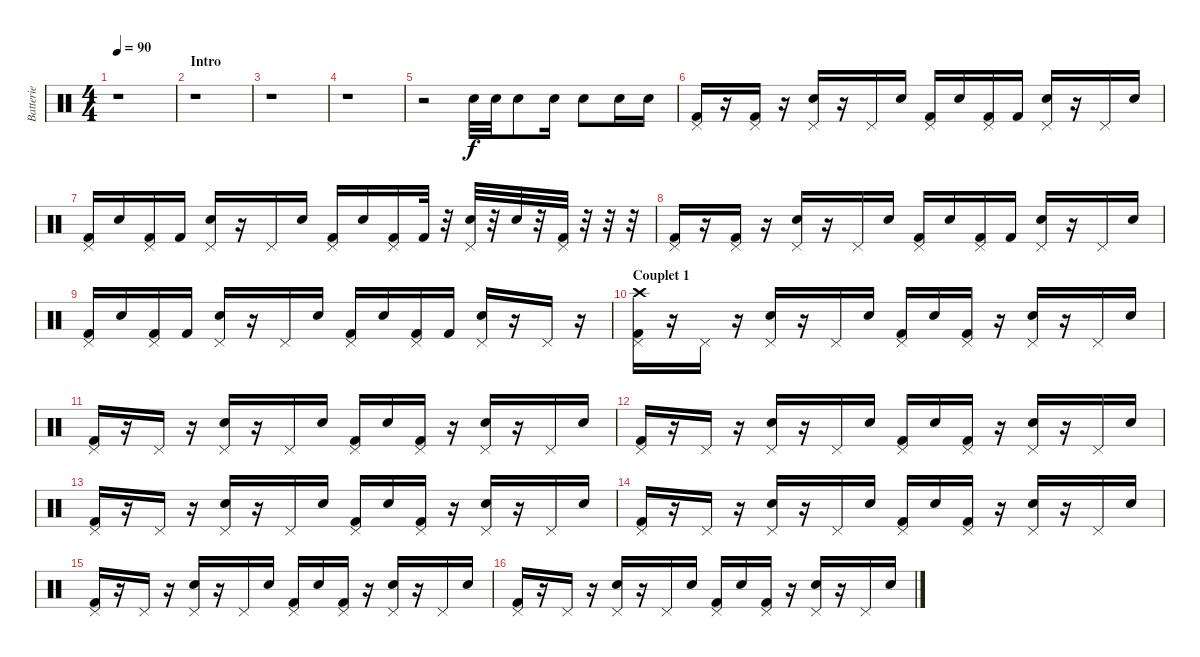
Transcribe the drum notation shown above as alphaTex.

\track ("Batterie" "Batterie") {instrument percussion}
\staff {score}
\articulation defaults
\ts (4 4)
\tempo 90
\clef neutral
\ks c
r.1{dy f} |
\section ("" "Intro")
r.1 |
r.1 |
r.1 |
r.2 "Electric Snare (hit)".32 "Electric Snare (hit)".32 "Electric Snare (hit)".8 "Electric Snare (hit)".16 "Electric Snare (hit)".8 "Electric Snare (hit)".16 "Electric Snare (hit)".16 |
("Pedal Hi-Hat (hit)" "Kick (hit) 2").16 r.16 ("Pedal Hi-Hat (hit)" "Kick (hit) 2").16 r.16 ("Pedal Hi-Hat (hit)" "Electric Snare (hit)").16 r.16 "Pedal Hi-Hat (hit)".16 "Electric Snare (hit)".16 ("Pedal Hi-Hat (hit)" "Kick (hit) 2").16 "Electric Snare (hit)".16 ("Pedal Hi-Hat (hit)" "Kick (hit) 2").16 "Kick (hit) 2".16 ("Pedal Hi-Hat (hit)" "Electric Snare (hit)").16 r.16 "Pedal Hi-Hat (hit)".16 "Electric Snare (hit)".16 |
("Pedal Hi-Hat (hit)" "Kick (hit) 2").16 "Electric Snare (hit)".16 ("Pedal Hi-Hat (hit)" "Kick (hit) 2").16 "Kick (hit) 2".16 ("Pedal Hi-Hat (hit)" "Electric Snare (hit)").16 r.16 "Pedal Hi-Hat (hit)".16 "Electric Snare (hit)".16 ("Pedal Hi-Hat (hit)" "Kick (hit) 2").16 "Electric Snare (hit)".16 ("Pedal Hi-Hat (hit)" "Kick (hit) 2").16 "Kick (hit) 2".32 r.32 ("Pedal Hi-Hat (hit)" "Electric Snare (hit)").32 r.32 "Electric Snare (hit)".32 r.32 ("Pedal Hi-Hat (hit)" "Kick (hit) 2").32 r.32 r.32 r.32 |
("Pedal Hi-Hat (hit)" "Kick (hit) 2").16 r.16 ("Pedal Hi-Hat (hit)" "Kick (hit) 2").16 r.16 ("Pedal Hi-Hat (hit)" "Electric Snare (hit)").16 r.16 "Pedal Hi-Hat (hit)".16 "Electric Snare (hit)".16 ("Pedal Hi-Hat (hit)" "Kick (hit) 2").16 "Electric Snare (hit)".16 ("Pedal Hi-Hat (hit)" "Kick (hit) 2").16 "Kick (hit) 2".16 ("Pedal Hi-Hat (hit)" "Electric Snare (hit)").16 r.16 "Pedal Hi-Hat (hit)".16 "Electric Snare (hit)".16 |
("Pedal Hi-Hat (hit)" "Kick (hit) 2").16 "Electric Snare (hit)".16 ("Pedal Hi-Hat (hit)" "Kick (hit) 2").16 "Kick (hit) 2".16 ("Pedal Hi-Hat (hit)" "Electric Snare (hit)").16 r.16 "Pedal Hi-Hat (hit)".16 "Electric Snare (hit)".16 ("Pedal Hi-Hat (hit)" "Kick (hit) 2").16 "Electric Snare (hit)".16 ("Pedal Hi-Hat (hit)" "Kick (hit) 2").16 "Kick (hit) 2".16 ("Pedal Hi-Hat (hit)" "Electric Snare (hit)").16 r.16 "Pedal Hi-Hat (hit)".16 r.16 |
\section ("" "Couplet 1")
("Pedal Hi-Hat (hit)" "Crash high (hit)" "Kick (hit) 2").16 r.16 "Pedal Hi-Hat (hit)".16 r.16 ("Pedal Hi-Hat (hit)" "Electric Snare (hit)").16 r.16 "Pedal Hi-Hat (hit)".16 "Electric Snare (hit)".16 ("Pedal Hi-Hat (hit)" "Kick (hit) 2").16 "Electric Snare (hit)".16 ("Pedal Hi-Hat (hit)" "Kick (hit) 2").16 r.16 ("Pedal Hi-Hat (hit)" "Electric Snare (hit)").16 r.16 "Pedal Hi-Hat (hit)".16 "Electric Snare (hit)".16 |
("Pedal Hi-Hat (hit)" "Kick (hit) 2").16 r.16 "Pedal Hi-Hat (hit)".16 r.16 ("Pedal Hi-Hat (hit)" "Electric Snare (hit)").16 r.16 "Pedal Hi-Hat (hit)".16 "Electric Snare (hit)".16 ("Pedal Hi-Hat (hit)" "Kick (hit) 2").16 "Electric Snare (hit)".16 ("Pedal Hi-Hat (hit)" "Kick (hit) 2").16 r.16 ("Pedal Hi-Hat (hit)" "Electric Snare (hit)").16 r.16 "Pedal Hi-Hat (hit)".16 "Electric Snare (hit)".16 |
("Pedal Hi-Hat (hit)" "Kick (hit) 2").16 r.16 "Pedal Hi-Hat (hit)".16 r.16 ("Pedal Hi-Hat (hit)" "Electric Snare (hit)").16 r.16 "Pedal Hi-Hat (hit)".16 "Electric Snare (hit)".16 ("Pedal Hi-Hat (hit)" "Kick (hit) 2").16 "Electric Snare (hit)".16 ("Pedal Hi-Hat (hit)" "Kick (hit) 2").16 r.16 ("Pedal Hi-Hat (hit)" "Electric Snare (hit)").16 r.16 "Pedal Hi-Hat (hit)".16 "Electric Snare (hit)".16 |
("Pedal Hi-Hat (hit)" "Kick (hit) 2").16 r.16 "Pedal Hi-Hat (hit)".16 r.16 ("Pedal Hi-Hat (hit)" "Electric Snare (hit)").16 r.16 "Pedal Hi-Hat (hit)".16 "Electric Snare (hit)".16 ("Pedal Hi-Hat (hit)" "Kick (hit) 2").16 "Electric Snare (hit)".16 ("Pedal Hi-Hat (hit)" "Kick (hit) 2").16 r.16 ("Pedal Hi-Hat (hit)" "Electric Snare (hit)").16 r.16 "Pedal Hi-Hat (hit)".16 "Electric Snare (hit)".16 |
("Pedal Hi-Hat (hit)" "Kick (hit) 2").16 r.16 "Pedal Hi-Hat (hit)".16 r.16 ("Pedal Hi-Hat (hit)" "Electric Snare (hit)").16 r.16 "Pedal Hi-Hat (hit)".16 "Electric Snare (hit)".16 ("Pedal Hi-Hat (hit)" "Kick (hit) 2").16 "Electric Snare (hit)".16 ("Pedal Hi-Hat (hit)" "Kick (hit) 2").16 r.16 ("Pedal Hi-Hat (hit)" "Electric Snare (hit)").16 r.16 "Pedal Hi-Hat (hit)".16 "Electric Snare (hit)".16 |
("Pedal Hi-Hat (hit)" "Kick (hit) 2").16 r.16 "Pedal Hi-Hat (hit)".16 r.16 ("Pedal Hi-Hat (hit)" "Electric Snare (hit)").16 r.16 "Pedal Hi-Hat (hit)".16 "Electric Snare (hit)".16 ("Pedal Hi-Hat (hit)" "Kick (hit) 2").16 "Electric Snare (hit)".16 ("Pedal Hi-Hat (hit)" "Kick (hit) 2").16 r.16 ("Pedal Hi-Hat (hit)" "Electric Snare (hit)").16 r.16 "Pedal Hi-Hat (hit)".16 "Electric Snare (hit)".16 |
("Pedal Hi-Hat (hit)" "Kick (hit) 2").16 r.16 "Pedal Hi-Hat (hit)".16 r.16 ("Pedal Hi-Hat (hit)" "Electric Snare (hit)").16 r.16 "Pedal Hi-Hat (hit)".16 "Electric Snare (hit)".16 ("Pedal Hi-Hat (hit)" "Kick (hit) 2").16 "Electric Snare (hit)".16 ("Pedal Hi-Hat (hit)" "Kick (hit) 2").16 r.16 ("Pedal Hi-Hat (hit)" "Electric Snare (hit)").16 r.16 "Pedal Hi-Hat (hit)".16 "Electric Snare (hit)".16
